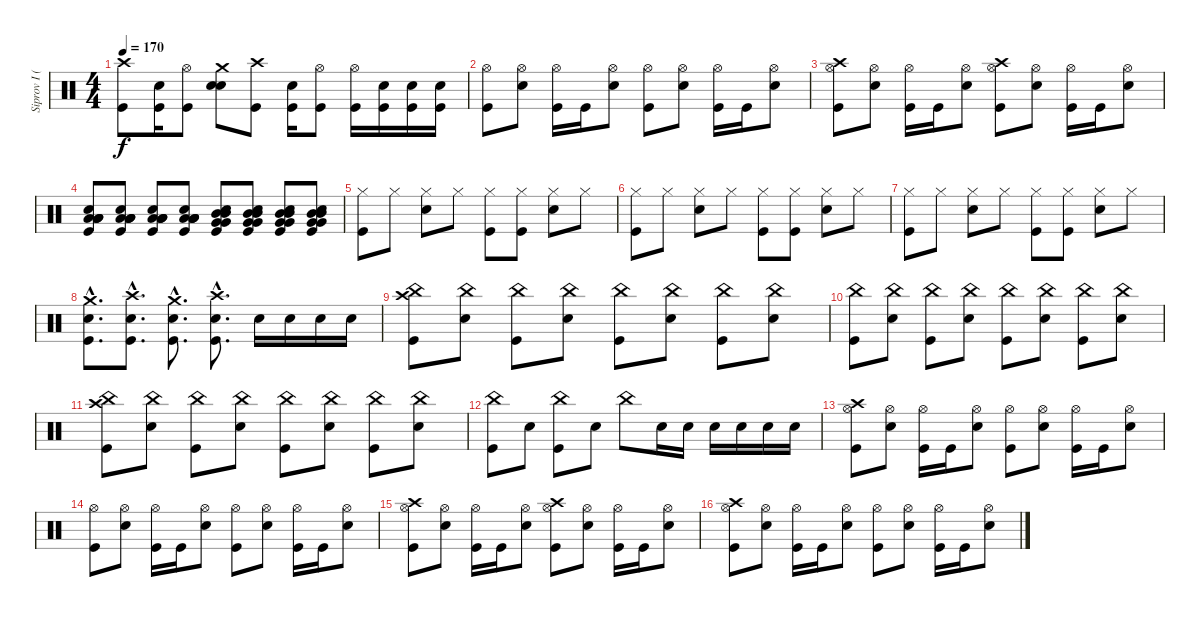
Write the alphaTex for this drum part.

\track ("Siprov I (DRUMS)" "Siprov I (") {instrument percussion}
\staff {score}
\articulation defaults
\ts (4 4)
\tempo 170
\clef neutral
\ks c
("Crash high (hit)" "Kick (hit)").8{dy f} ("Electric Snare (hit)" "Kick (hit)").16 ("Hi-Hat (open)" "Kick (hit)").8 ("Crash medium (hit)" "Electric Snare (hit)" "Snare (hit)").8 ("Crash high (hit)" "Kick (hit)").8 ("Electric Snare (hit)" "Kick (hit)").16 ("Hi-Hat (open)" "Kick (hit)").8 ("Hi-Hat (open)" "Kick (hit)").16 ("Electric Snare (hit)" "Kick (hit)").16 ("Electric Snare (hit)" "Kick (hit)").16 ("Electric Snare (hit)" "Kick (hit)").16 |
("Hi-Hat (open)" "Kick (hit)").8 ("Hi-Hat (open)" "Electric Snare (hit)").8 ("Hi-Hat (open)" "Kick (hit)").16 "Kick (hit)".16 ("Hi-Hat (open)" "Electric Snare (hit)").8 ("Hi-Hat (open)" "Kick (hit)").8 ("Hi-Hat (open)" "Electric Snare (hit)").8 ("Hi-Hat (open)" "Kick (hit)").16 "Kick (hit)".16 ("Hi-Hat (open)" "Electric Snare (hit)").8 |
("Hi-Hat (open)" "Crash high (hit)" "Kick (hit)").8 ("Hi-Hat (open)" "Electric Snare (hit)").8 ("Hi-Hat (open)" "Kick (hit)").16 "Kick (hit)".16 ("Hi-Hat (open)" "Electric Snare (hit)").8 ("Hi-Hat (open)" "Crash high (hit)" "Kick (hit)").8 ("Hi-Hat (open)" "Electric Snare (hit)").8 ("Hi-Hat (open)" "Kick (hit)").16 "Kick (hit)".16 ("Hi-Hat (open)" "Electric Snare (hit)").8 |
("Low Tom (hit)" "Low Tom (hit)" "Low Floor Tom (hit)" "Low Floor Tom (hit)" "Electric Snare (hit)" "Kick (hit)").8 ("Low Tom (hit)" "Low Tom (hit)" "Low Floor Tom (hit)" "Low Floor Tom (hit)" "Electric Snare (hit)" "Kick (hit)").8 ("Low Tom (hit)" "Low Tom (hit)" "Low Floor Tom (hit)" "Low Floor Tom (hit)" "Electric Snare (hit)" "Kick (hit)").8 ("Low Tom (hit)" "Low Tom (hit)" "Low Floor Tom (hit)" "Low Floor Tom (hit)" "Electric Snare (hit)" "Kick (hit)").8 ("Mid Tom (hit)" "Mid Tom (hit)" "Very Low Tom (hit)" "Very Low Tom (hit)" "Electric Snare (hit)" "Kick (hit)").8 ("Mid Tom (hit)" "Mid Tom (hit)" "Very Low Tom (hit)" "Very Low Tom (hit)" "Electric Snare (hit)" "Kick (hit)").8 ("Mid Tom (hit)" "Mid Tom (hit)" "Very Low Tom (hit)" "Very Low Tom (hit)" "Electric Snare (hit)" "Kick (hit)").8 ("Mid Tom (hit)" "Mid Tom (hit)" "Very Low Tom (hit)" "Very Low Tom (hit)" "Electric Snare (hit)" "Kick (hit)").8 |
("Hi-Hat (closed)" "Kick (hit)").8 "Hi-Hat (closed)".8 ("Hi-Hat (closed)" "Electric Snare (hit)").8 "Hi-Hat (closed)".8 ("Hi-Hat (closed)" "Kick (hit)").8 ("Hi-Hat (closed)" "Kick (hit)").8 ("Hi-Hat (closed)" "Electric Snare (hit)").8 "Hi-Hat (closed)".8 |
("Hi-Hat (closed)" "Kick (hit)").8 "Hi-Hat (closed)".8 ("Hi-Hat (closed)" "Electric Snare (hit)").8 "Hi-Hat (closed)".8 ("Hi-Hat (closed)" "Kick (hit)").8 ("Hi-Hat (closed)" "Kick (hit)").8 ("Hi-Hat (closed)" "Electric Snare (hit)").8 "Hi-Hat (closed)".8 |
("Hi-Hat (closed)" "Kick (hit)").8 "Hi-Hat (closed)".8 ("Hi-Hat (closed)" "Electric Snare (hit)").8 "Hi-Hat (closed)".8 ("Hi-Hat (closed)" "Kick (hit)").8 ("Hi-Hat (closed)" "Kick (hit)").8 ("Hi-Hat (closed)" "Electric Snare (hit)").8 "Hi-Hat (closed)".8 |
("Crash medium (hit)"{hac} "Electric Snare (hit)"{hac} "Kick (hit)"{hac}).8{d} ("Crash high (hit)"{hac} "Electric Snare (hit)"{hac} "Kick (hit)"{hac}).8{d} ("Crash medium (hit)"{hac} "Electric Snare (hit)"{hac} "Kick (hit)"{hac}).8{d} ("Crash high (hit)"{hac} "Electric Snare (hit)"{hac} "Kick (hit)"{hac}).8{d} "Electric Snare (hit)".16 "Electric Snare (hit)".16 "Electric Snare (hit)".16 "Electric Snare (hit)".16 |
("China (hit)" "Crash high (hit)" "Kick (hit)").8 ("China (hit)" "Electric Snare (hit)").8 ("China (hit)" "Kick (hit)").8 ("China (hit)" "Electric Snare (hit)").8 ("China (hit)" "Kick (hit)").8 ("China (hit)" "Electric Snare (hit)").8 ("China (hit)" "Kick (hit)").8 ("China (hit)" "Electric Snare (hit)").8 |
("China (hit)" "Kick (hit)").8 ("China (hit)" "Electric Snare (hit)").8 ("China (hit)" "Kick (hit)").8 ("China (hit)" "Electric Snare (hit)").8 ("China (hit)" "Kick (hit)").8 ("China (hit)" "Electric Snare (hit)").8 ("China (hit)" "Kick (hit)").8 ("China (hit)" "Electric Snare (hit)").8 |
("China (hit)" "Crash high (hit)" "Kick (hit)").8 ("China (hit)" "Electric Snare (hit)").8 ("China (hit)" "Kick (hit)").8 ("China (hit)" "Electric Snare (hit)").8 ("China (hit)" "Kick (hit)").8 ("China (hit)" "Electric Snare (hit)").8 ("China (hit)" "Kick (hit)").8 ("China (hit)" "Electric Snare (hit)").8 |
("China (hit)" "Kick (hit)").8 "Electric Snare (hit)".8 ("China (hit)" "Kick (hit)").8 "Electric Snare (hit)".8 "China (hit)".8 "Electric Snare (hit)".16 "Electric Snare (hit)".16 "Electric Snare (hit)".16 "Electric Snare (hit)".16 "Electric Snare (hit)".16 "Electric Snare (hit)".16 |
("Hi-Hat (open)" "Crash high (hit)" "Kick (hit)").8 ("Hi-Hat (open)" "Electric Snare (hit)").8 ("Hi-Hat (open)" "Kick (hit)").16 "Kick (hit)".16 ("Hi-Hat (open)" "Electric Snare (hit)").8 ("Hi-Hat (open)" "Kick (hit)").8 ("Hi-Hat (open)" "Electric Snare (hit)").8 ("Hi-Hat (open)" "Kick (hit)").16 "Kick (hit)".16 ("Hi-Hat (open)" "Electric Snare (hit)").8 |
("Hi-Hat (open)" "Kick (hit)").8 ("Hi-Hat (open)" "Electric Snare (hit)").8 ("Hi-Hat (open)" "Kick (hit)").16 "Kick (hit)".16 ("Hi-Hat (open)" "Electric Snare (hit)").8 ("Hi-Hat (open)" "Kick (hit)").8 ("Hi-Hat (open)" "Electric Snare (hit)").8 ("Hi-Hat (open)" "Kick (hit)").16 "Kick (hit)".16 ("Hi-Hat (open)" "Electric Snare (hit)").8 |
("Hi-Hat (open)" "Crash high (hit)" "Kick (hit)").8 ("Hi-Hat (open)" "Electric Snare (hit)").8 ("Hi-Hat (open)" "Kick (hit)").16 "Kick (hit)".16 ("Hi-Hat (open)" "Electric Snare (hit)").8 ("Hi-Hat (open)" "Crash high (hit)" "Kick (hit)").8 ("Hi-Hat (open)" "Electric Snare (hit)").8 ("Hi-Hat (open)" "Kick (hit)").16 "Kick (hit)".16 ("Hi-Hat (open)" "Electric Snare (hit)").8 |
("Hi-Hat (open)" "Crash high (hit)" "Kick (hit)").8 ("Hi-Hat (open)" "Electric Snare (hit)").8 ("Hi-Hat (open)" "Kick (hit)").16 "Kick (hit)".16 ("Hi-Hat (open)" "Electric Snare (hit)").8 ("Hi-Hat (open)" "Kick (hit)").8 ("Hi-Hat (open)" "Electric Snare (hit)").8 ("Hi-Hat (open)" "Kick (hit)").16 "Kick (hit)".16 ("Hi-Hat (open)" "Electric Snare (hit)").8
